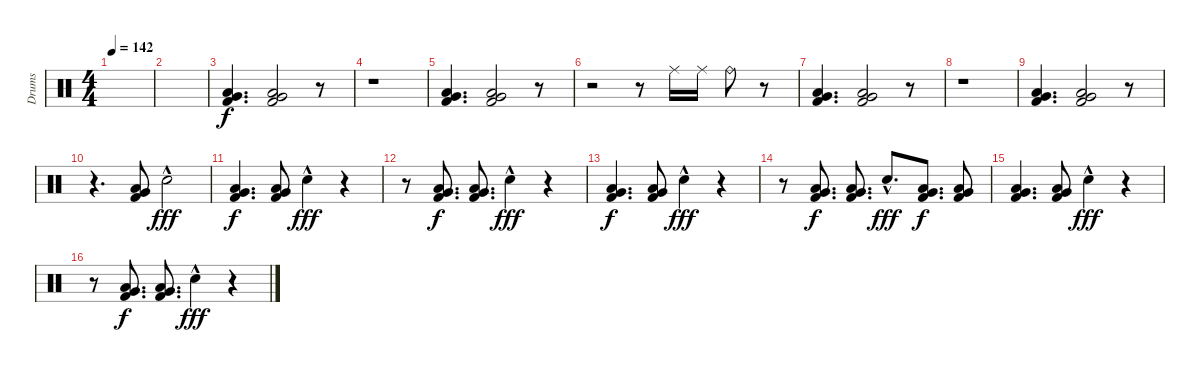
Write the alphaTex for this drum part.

\track ("Drums" "Drums") {instrument percussion}
\staff {score}
\articulation defaults
\ts (4 4)
\tempo 142
\clef neutral
\ks c
|
|
("Very Low Tom (hit)" "Low Floor Tom (hit)" "Kick (hit) 2").4{d} ("Very Low Tom (hit)" "Low Floor Tom (hit)" "Kick (hit) 2").2 r.8 |
r.1 |
("Very Low Tom (hit)" "Low Floor Tom (hit)" "Kick (hit) 2").4{d} ("Very Low Tom (hit)" "Low Floor Tom (hit)" "Kick (hit) 2").2 r.8 |
r.2 r.8 "Ride (middle)".16 "Ride (middle)".16 "Ride (bell)".8 r.8 |
("Very Low Tom (hit)" "Low Floor Tom (hit)" "Kick (hit) 2").4{d} ("Very Low Tom (hit)" "Low Floor Tom (hit)" "Kick (hit) 2").2 r.8 |
r.1 |
("Very Low Tom (hit)" "Low Floor Tom (hit)" "Kick (hit) 2").4{d} ("Very Low Tom (hit)" "Low Floor Tom (hit)" "Kick (hit) 2").2 r.8 |
r.4{d} ("Very Low Tom (hit)" "Low Floor Tom (hit)" "Kick (hit) 2").8 "Electric Snare (hit)"{hac}.2{dy fff} |
("Very Low Tom (hit)" "Low Floor Tom (hit)" "Kick (hit) 2").4{d dy f} ("Very Low Tom (hit)" "Low Floor Tom (hit)" "Kick (hit) 2").8 "Electric Snare (hit)"{hac}.4{dy fff} r.4 |
r.8 ("Low Tom (hit)" "Very Low Tom (hit)" "Kick (hit) 2").8{d dy f} ("Very Low Tom (hit)" "Low Floor Tom (hit)" "Kick (hit) 2").8{d} "Electric Snare (hit)"{hac}.4{dy fff} r.4 |
("Very Low Tom (hit)" "Low Floor Tom (hit)" "Kick (hit) 2").4{d dy f} ("Very Low Tom (hit)" "Low Floor Tom (hit)" "Kick (hit) 2").8 "Electric Snare (hit)"{hac}.4{dy fff} r.4 |
r.8 ("Low Tom (hit)" "Very Low Tom (hit)" "Kick (hit) 2").8{d dy f} ("Very Low Tom (hit)" "Low Floor Tom (hit)" "Kick (hit) 2").8{d} "Electric Snare (hit)"{hac}.8{d dy fff} ("Low Tom (hit)" "Very Low Tom (hit)" "Kick (hit) 2").8{d dy f} ("Very Low Tom (hit)" "Low Floor Tom (hit)" "Kick (hit) 2").8 |
("Very Low Tom (hit)" "Low Floor Tom (hit)" "Kick (hit) 2").4{d} ("Very Low Tom (hit)" "Low Floor Tom (hit)" "Kick (hit) 2").8 "Electric Snare (hit)"{hac}.4{dy fff} r.4 |
r.8 ("Low Tom (hit)" "Very Low Tom (hit)" "Kick (hit) 2").8{d dy f} ("Very Low Tom (hit)" "Low Floor Tom (hit)" "Kick (hit) 2").8{d} "Electric Snare (hit)"{hac}.4{dy fff} r.4
